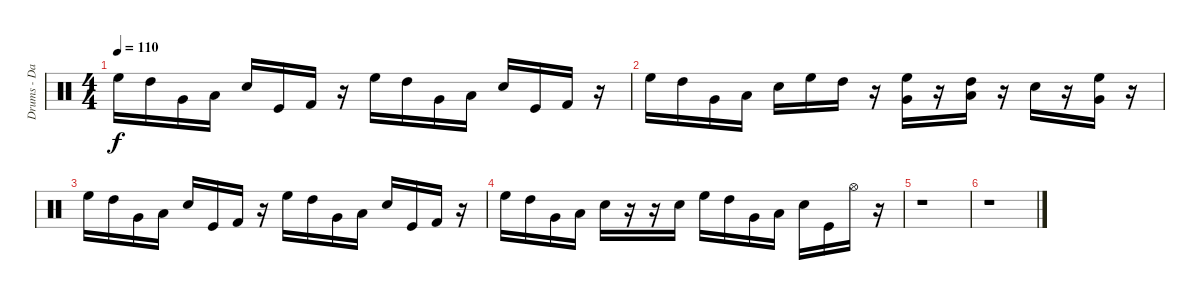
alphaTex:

\track ("Drums - David" "Drums - Da") {instrument percussion}
\staff {score}
\articulation defaults
\ts (4 4)
\tempo 110
\clef neutral
\ks c "High Floor Tom (hit)".16{dy f} "High Tom (hit)".16 "Very Low Tom (hit)".16 "Low Floor Tom (hit)".16 "Snare (hit) 2".16 "Kick (hit)".16 "Kick (hit) 2".16
r.16 "High Floor Tom (hit)".16 "High Tom (hit)".16 "Very Low Tom (hit)".16 "Low Floor Tom (hit)".16 "Snare (hit) 2".16 "Kick (hit)".16 "Kick (hit) 2".16 r.16 |
"High Floor Tom (hit)".16 "High Tom (hit)".16 "Very Low Tom (hit)".16 "Low Floor Tom (hit)".16 "Snare (hit) 2".16 "High Floor Tom (hit)".16 "High Tom (hit)".16 r.16 ("High Floor Tom (hit)" "Very Low Tom (hit)").16 r.16 ("High Tom (hit)" "Low Floor Tom (hit)").16 r.16 "Snare (hit) 2".16 r.16 ("High Floor Tom (hit)" "Very Low Tom (hit)").16 r.16 |
"High Floor Tom (hit)".16 "High Tom (hit)".16 "Very Low Tom (hit)".16 "Low Floor Tom (hit)".16 "Snare (hit) 2".16 "Kick (hit)".16 "Kick (hit) 2".16 r.16 "High Floor Tom (hit)".16 "High Tom (hit)".16 "Very Low Tom (hit)".16 "Low Floor Tom (hit)".16 "Snare (hit) 2".16 "Kick (hit)".16 "Kick (hit) 2".16 r.16 |
"High Floor Tom (hit)".16 "High Tom (hit)".16 "Very Low Tom (hit)".16 "Low Floor Tom (hit)".16 "Snare (hit) 2".16 r.16 r.16 "Snare (hit) 2".16 "High Floor Tom (hit)".16 "High Tom (hit)".16 "Very Low Tom (hit)".16 "Low Floor Tom (hit)".16 "Snare (hit) 2".16 "Kick (hit)".16 "Hi-Hat (open)".16 r.16 |
r.1 |
r.1
